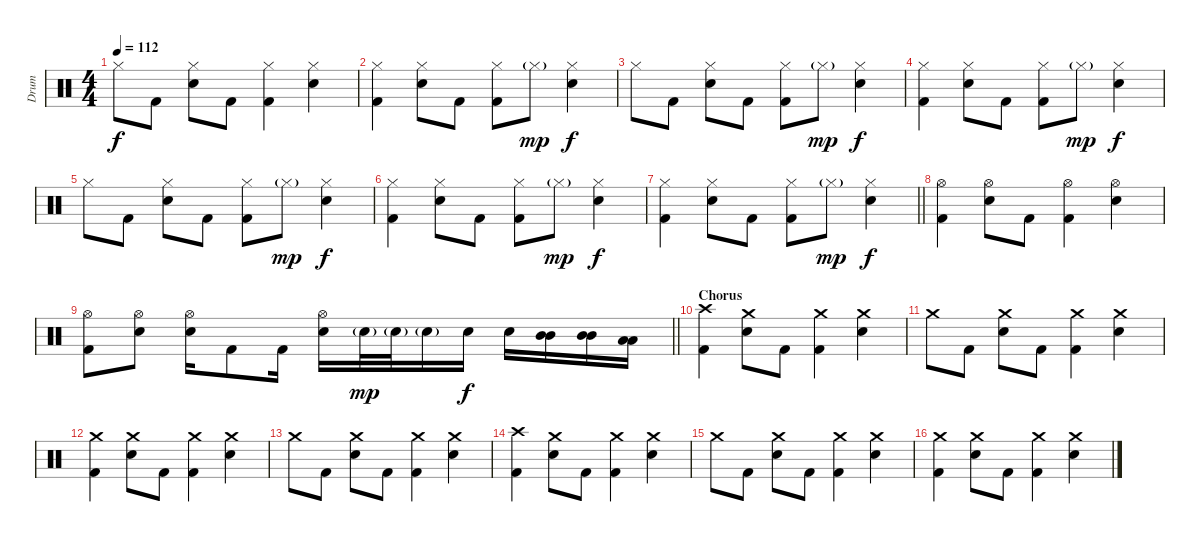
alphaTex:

\track ("Drum" "Drum") {instrument percussion}
\staff {score}
\articulation defaults
\ts (4 4)
\tempo 112
\clef neutral
\ks c "Hi-Hat (closed)".8{dy f} "Kick (hit) 2".8
("Hi-Hat (closed)" "Electric Snare (hit)").8 "Kick (hit) 2".8 ("Hi-Hat (closed)" "Kick (hit) 2").4 ("Hi-Hat (closed)" "Electric Snare (hit)").4 |
("Hi-Hat (closed)" "Kick (hit) 2").4 ("Hi-Hat (closed)" "Electric Snare (hit)").8 "Kick (hit) 2".8 ("Hi-Hat (closed)" "Kick (hit) 2").8 "Hi-Hat (closed)"{g}.8{dy mp} ("Hi-Hat (closed)" "Electric Snare (hit)").4{dy f} |
"Hi-Hat (closed)".8 "Kick (hit) 2".8 ("Hi-Hat (closed)" "Electric Snare (hit)").8 "Kick (hit) 2".8 ("Hi-Hat (closed)" "Kick (hit) 2").8 "Hi-Hat (closed)"{g}.8{dy mp} ("Hi-Hat (closed)" "Electric Snare (hit)").4{dy f} |
("Hi-Hat (closed)" "Kick (hit) 2").4 ("Hi-Hat (closed)" "Electric Snare (hit)").8 "Kick (hit) 2".8 ("Hi-Hat (closed)" "Kick (hit) 2").8 "Hi-Hat (closed)"{g}.8{dy mp} ("Hi-Hat (closed)" "Electric Snare (hit)").4{dy f} |
"Hi-Hat (closed)".8 "Kick (hit) 2".8 ("Hi-Hat (closed)" "Electric Snare (hit)").8 "Kick (hit) 2".8 ("Hi-Hat (closed)" "Kick (hit) 2").8 "Hi-Hat (closed)"{g}.8{dy mp} ("Hi-Hat (closed)" "Electric Snare (hit)").4{dy f} |
("Hi-Hat (closed)" "Kick (hit) 2").4 ("Hi-Hat (closed)" "Electric Snare (hit)").8 "Kick (hit) 2".8 ("Hi-Hat (closed)" "Kick (hit) 2").8 "Hi-Hat (closed)"{g}.8{dy mp} ("Hi-Hat (closed)" "Electric Snare (hit)").4{dy f} |
\barLineRight lightlight
("Hi-Hat (closed)" "Kick (hit) 2").4 ("Hi-Hat (closed)" "Electric Snare (hit)").8 "Kick (hit) 2".8 ("Hi-Hat (closed)" "Kick (hit) 2").8 "Hi-Hat (closed)"{g}.8{dy mp} ("Hi-Hat (closed)" "Electric Snare (hit)").4{dy f} |
("Hi-Hat (open)" "Kick (hit) 2").4 ("Hi-Hat (open)" "Electric Snare (hit)").8 "Kick (hit) 2".8 ("Hi-Hat (open)" "Kick (hit) 2").4 ("Hi-Hat (open)" "Electric Snare (hit)").4 |
\barLineRight lightlight
("Hi-Hat (open)" "Kick (hit) 2").8 ("Hi-Hat (open)" "Electric Snare (hit)").8 ("Hi-Hat (open)" "Electric Snare (hit)").16 "Kick (hit) 2".8 "Kick (hit) 2".16 ("Hi-Hat (open)" "Electric Snare (hit)").16 "Electric Snare (hit)"{g}.32{dy mp} "Electric Snare (hit)"{g}.32 "Electric Snare (hit)"{g}.16 "Electric Snare (hit)".16{dy f} "Electric Snare (hit)".16 ("Mid Tom (hit)" "Mid Tom (hit)").16 ("Mid Tom (hit)" "Mid Tom (hit)").16 ("Low Tom (hit)" "Low Tom (hit)").16 |
\section ("" "Chorus")
("Crash high (hit)" "Kick (hit) 2").4 ("Crash medium (hit)" "Electric Snare (hit)").8 "Kick (hit) 2".8 ("Crash medium (hit)" "Kick (hit) 2").4 ("Crash medium (hit)" "Electric Snare (hit)").4 |
"Crash medium (hit)".8 "Kick (hit) 2".8 ("Crash medium (hit)" "Electric Snare (hit)").8 "Kick (hit) 2".8 ("Crash medium (hit)" "Kick (hit) 2").4 ("Crash medium (hit)" "Electric Snare (hit)").4 |
("Crash medium (hit)" "Kick (hit) 2").4 ("Crash medium (hit)" "Electric Snare (hit)").8 "Kick (hit) 2".8 ("Crash medium (hit)" "Kick (hit) 2").4 ("Crash medium (hit)" "Electric Snare (hit)").4 |
"Crash medium (hit)".8 "Kick (hit) 2".8 ("Crash medium (hit)" "Electric Snare (hit)").8 "Kick (hit) 2".8 ("Crash medium (hit)" "Kick (hit) 2").4 ("Crash medium (hit)" "Electric Snare (hit)").4 |
("Crash high (hit)" "Kick (hit) 2").4 ("Crash medium (hit)" "Electric Snare (hit)").8 "Kick (hit) 2".8 ("Crash medium (hit)" "Kick (hit) 2").4 ("Crash medium (hit)" "Electric Snare (hit)").4 |
"Crash medium (hit)".8 "Kick (hit) 2".8 ("Crash medium (hit)" "Electric Snare (hit)").8 "Kick (hit) 2".8 ("Crash medium (hit)" "Kick (hit) 2").4 ("Crash medium (hit)" "Electric Snare (hit)").4 |
("Crash medium (hit)" "Kick (hit) 2").4 ("Crash medium (hit)" "Electric Snare (hit)").8 "Kick (hit) 2".8 ("Crash medium (hit)" "Kick (hit) 2").4 ("Crash medium (hit)" "Electric Snare (hit)").4
